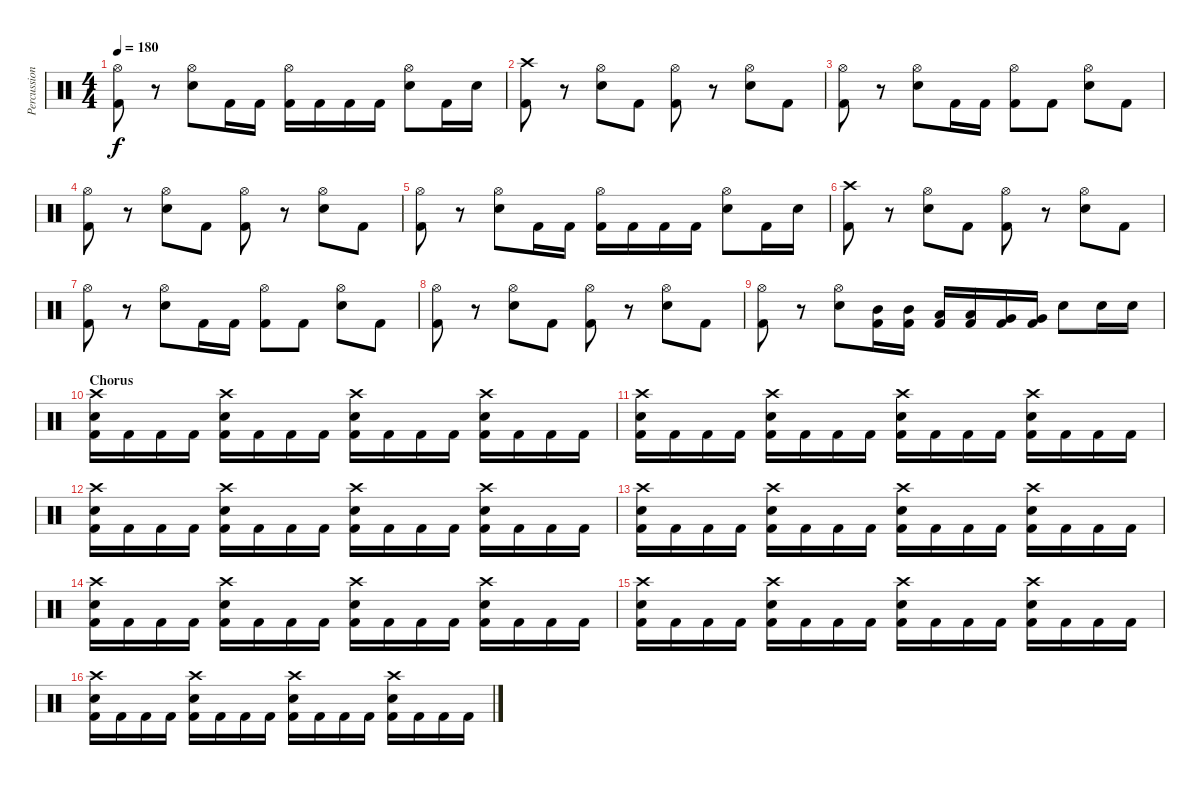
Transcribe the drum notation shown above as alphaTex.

\track ("Percussion" "Percussion") {instrument percussion}
\staff {score}
\articulation defaults
\ts (4 4)
\tempo 180
\clef neutral
\ks c
("Hi-Hat (open)" "Kick (hit) 2").8{dy f} r.8 ("Hi-Hat (open)" "Electric Snare (hit)").8 "Kick (hit) 2".16 "Kick (hit) 2".16 ("Hi-Hat (open)" "Kick (hit) 2").16 "Kick (hit) 2".16 "Kick (hit) 2".16 "Kick (hit) 2".16 ("Hi-Hat (open)" "Electric Snare (hit)").8 "Kick (hit) 2".16 "Electric Snare (hit)".16 |
("Crash high (hit)" "Kick (hit) 2").8 r.8 ("Hi-Hat (open)" "Electric Snare (hit)").8 "Kick (hit) 2".8 ("Hi-Hat (open)" "Kick (hit) 2").8 r.8 ("Hi-Hat (open)" "Electric Snare (hit)").8 "Kick (hit) 2".8 |
("Hi-Hat (open)" "Kick (hit) 2").8 r.8 ("Hi-Hat (open)" "Electric Snare (hit)").8 "Kick (hit) 2".16 "Kick (hit) 2".16 ("Hi-Hat (open)" "Kick (hit) 2").8 "Kick (hit) 2".8 ("Hi-Hat (open)" "Electric Snare (hit)").8 "Kick (hit) 2".8 |
("Hi-Hat (open)" "Kick (hit) 2").8 r.8 ("Hi-Hat (open)" "Electric Snare (hit)").8 "Kick (hit) 2".8 ("Hi-Hat (open)" "Kick (hit) 2").8 r.8 ("Hi-Hat (open)" "Electric Snare (hit)").8 "Kick (hit) 2".8 |
("Hi-Hat (open)" "Kick (hit) 2").8 r.8 ("Hi-Hat (open)" "Electric Snare (hit)").8 "Kick (hit) 2".16 "Kick (hit) 2".16 ("Hi-Hat (open)" "Kick (hit) 2").16 "Kick (hit) 2".16 "Kick (hit) 2".16 "Kick (hit) 2".16 ("Hi-Hat (open)" "Electric Snare (hit)").8 "Kick (hit) 2".16 "Electric Snare (hit)".16 |
("Crash high (hit)" "Kick (hit) 2").8 r.8 ("Hi-Hat (open)" "Electric Snare (hit)").8 "Kick (hit) 2".8 ("Hi-Hat (open)" "Kick (hit) 2").8 r.8 ("Hi-Hat (open)" "Electric Snare (hit)").8 "Kick (hit) 2".8 |
("Hi-Hat (open)" "Kick (hit) 2").8 r.8 ("Hi-Hat (open)" "Electric Snare (hit)").8 "Kick (hit) 2".16 "Kick (hit) 2".16 ("Hi-Hat (open)" "Kick (hit) 2").8 "Kick (hit) 2".8 ("Hi-Hat (open)" "Electric Snare (hit)").8 "Kick (hit) 2".8 |
("Hi-Hat (open)" "Kick (hit) 2").8 r.8 ("Hi-Hat (open)" "Electric Snare (hit)").8 "Kick (hit) 2".8 ("Hi-Hat (open)" "Kick (hit) 2").8 r.8 ("Hi-Hat (open)" "Electric Snare (hit)").8 "Kick (hit) 2".8 |
("Hi-Hat (open)" "Kick (hit) 2").8 r.8 ("Hi-Hat (open)" "Electric Snare (hit)").8 ("Mid Tom (hit)" "Kick (hit) 2").16 ("Mid Tom (hit)" "Kick (hit) 2").16 ("Low Tom (hit)" "Kick (hit) 2").16 ("Low Tom (hit)" "Kick (hit) 2").16 ("Very Low Tom (hit)" "Kick (hit) 2").16 ("Very Low Tom (hit)" "Kick (hit) 2").16 "Electric Snare (hit)".8 "Electric Snare (hit)".16 "Electric Snare (hit)".16 |
\section ("" "Chorus")
("Crash high (hit)" "Electric Snare (hit)" "Kick (hit) 2").16 "Kick (hit) 2".16 "Kick (hit) 2".16 "Kick (hit) 2".16 ("Crash high (hit)" "Electric Snare (hit)" "Kick (hit) 2").16 "Kick (hit) 2".16 "Kick (hit) 2".16 "Kick (hit) 2".16 ("Crash high (hit)" "Electric Snare (hit)" "Kick (hit) 2").16 "Kick (hit) 2".16 "Kick (hit) 2".16 "Kick (hit) 2".16 ("Crash high (hit)" "Electric Snare (hit)" "Kick (hit) 2").16 "Kick (hit) 2".16 "Kick (hit) 2".16 "Kick (hit) 2".16 |
("Crash high (hit)" "Electric Snare (hit)" "Kick (hit) 2").16 "Kick (hit) 2".16 "Kick (hit) 2".16 "Kick (hit) 2".16 ("Crash high (hit)" "Electric Snare (hit)" "Kick (hit) 2").16 "Kick (hit) 2".16 "Kick (hit) 2".16 "Kick (hit) 2".16 ("Crash high (hit)" "Electric Snare (hit)" "Kick (hit) 2").16 "Kick (hit) 2".16 "Kick (hit) 2".16 "Kick (hit) 2".16 ("Crash high (hit)" "Electric Snare (hit)" "Kick (hit) 2").16 "Kick (hit) 2".16 "Kick (hit) 2".16 "Kick (hit) 2".16 |
("Crash high (hit)" "Electric Snare (hit)" "Kick (hit) 2").16 "Kick (hit) 2".16 "Kick (hit) 2".16 "Kick (hit) 2".16 ("Crash high (hit)" "Electric Snare (hit)" "Kick (hit) 2").16 "Kick (hit) 2".16 "Kick (hit) 2".16 "Kick (hit) 2".16 ("Crash high (hit)" "Electric Snare (hit)" "Kick (hit) 2").16 "Kick (hit) 2".16 "Kick (hit) 2".16 "Kick (hit) 2".16 ("Crash high (hit)" "Electric Snare (hit)" "Kick (hit) 2").16 "Kick (hit) 2".16 "Kick (hit) 2".16 "Kick (hit) 2".16 |
("Crash high (hit)" "Electric Snare (hit)" "Kick (hit) 2").16 "Kick (hit) 2".16 "Kick (hit) 2".16 "Kick (hit) 2".16 ("Crash high (hit)" "Electric Snare (hit)" "Kick (hit) 2").16 "Kick (hit) 2".16 "Kick (hit) 2".16 "Kick (hit) 2".16 ("Crash high (hit)" "Electric Snare (hit)" "Kick (hit) 2").16 "Kick (hit) 2".16 "Kick (hit) 2".16 "Kick (hit) 2".16 ("Crash high (hit)" "Electric Snare (hit)" "Kick (hit) 2").16 "Kick (hit) 2".16 "Kick (hit) 2".16 "Kick (hit) 2".16 |
("Crash high (hit)" "Electric Snare (hit)" "Kick (hit) 2").16 "Kick (hit) 2".16 "Kick (hit) 2".16 "Kick (hit) 2".16 ("Crash high (hit)" "Electric Snare (hit)" "Kick (hit) 2").16 "Kick (hit) 2".16 "Kick (hit) 2".16 "Kick (hit) 2".16 ("Crash high (hit)" "Electric Snare (hit)" "Kick (hit) 2").16 "Kick (hit) 2".16 "Kick (hit) 2".16 "Kick (hit) 2".16 ("Crash high (hit)" "Electric Snare (hit)" "Kick (hit) 2").16 "Kick (hit) 2".16 "Kick (hit) 2".16 "Kick (hit) 2".16 |
("Crash high (hit)" "Electric Snare (hit)" "Kick (hit) 2").16 "Kick (hit) 2".16 "Kick (hit) 2".16 "Kick (hit) 2".16 ("Crash high (hit)" "Electric Snare (hit)" "Kick (hit) 2").16 "Kick (hit) 2".16 "Kick (hit) 2".16 "Kick (hit) 2".16 ("Crash high (hit)" "Electric Snare (hit)" "Kick (hit) 2").16 "Kick (hit) 2".16 "Kick (hit) 2".16 "Kick (hit) 2".16 ("Crash high (hit)" "Electric Snare (hit)" "Kick (hit) 2").16 "Kick (hit) 2".16 "Kick (hit) 2".16 "Kick (hit) 2".16 |
("Crash high (hit)" "Electric Snare (hit)" "Kick (hit) 2").16 "Kick (hit) 2".16 "Kick (hit) 2".16 "Kick (hit) 2".16 ("Crash high (hit)" "Electric Snare (hit)" "Kick (hit) 2").16 "Kick (hit) 2".16 "Kick (hit) 2".16 "Kick (hit) 2".16 ("Crash high (hit)" "Electric Snare (hit)" "Kick (hit) 2").16 "Kick (hit) 2".16 "Kick (hit) 2".16 "Kick (hit) 2".16 ("Crash high (hit)" "Electric Snare (hit)" "Kick (hit) 2").16 "Kick (hit) 2".16 "Kick (hit) 2".16 "Kick (hit) 2".16
